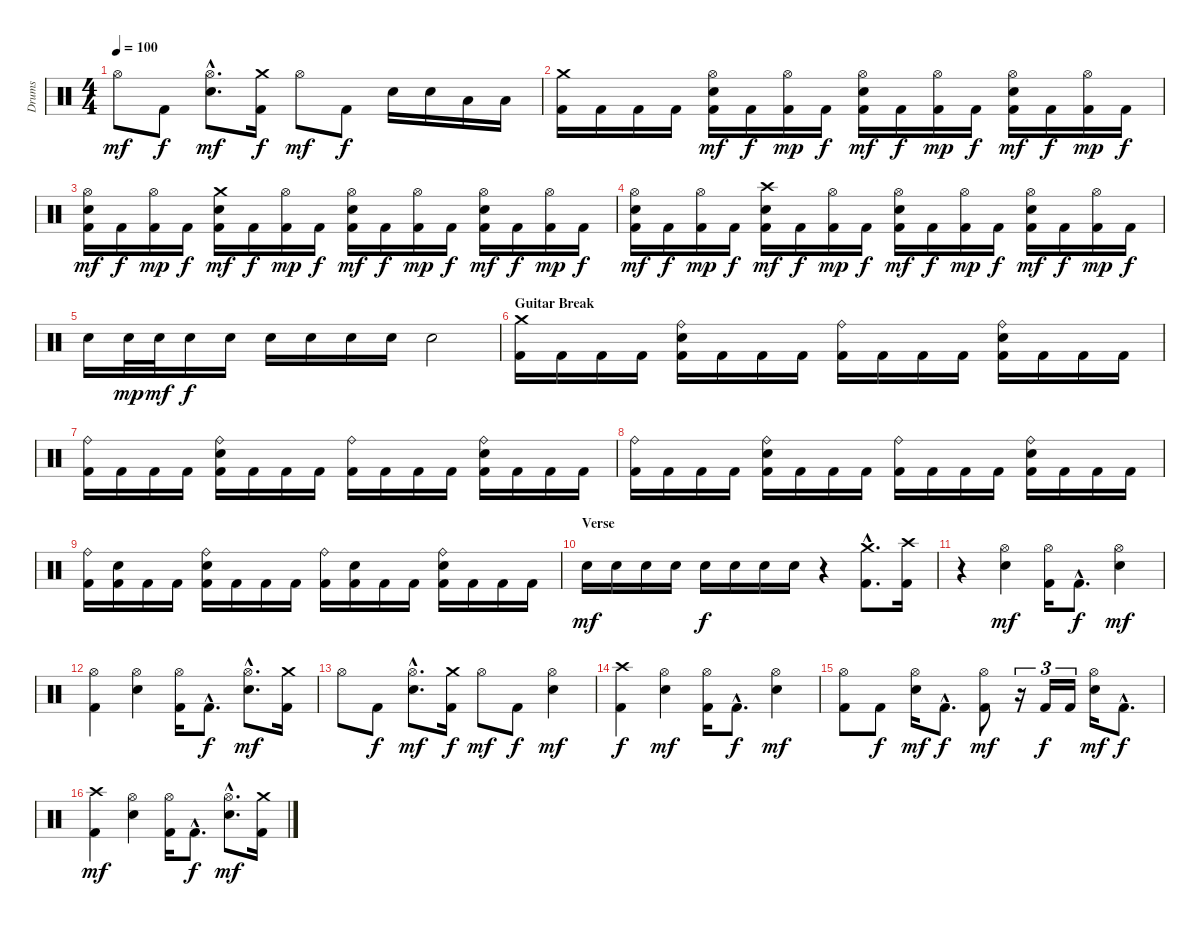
\track ("Drums" "Drums") {instrument percussion}
\staff {score}
\articulation defaults
\ts (4 4)
\tempo 100
\clef neutral
\ks c "Hi-Hat (open)".8{dy mf} "Kick (hit) 2".8{dy f}
("Hi-Hat (open)"{hac} "Electric Snare (hit)"{hac}).8{d dy mf} ("Crash medium (hit)" "Kick (hit) 2").16{dy f} "Hi-Hat (open)".8{dy mf} "Kick (hit) 2".8{dy f} "Electric Snare (hit)".16 "Electric Snare (hit)".16 "Low Tom (hit)".16 "Low Tom (hit)".16 |
("Crash medium (hit)" "Kick (hit) 2").16 "Kick (hit) 2".16 "Kick (hit) 2".16 "Kick (hit) 2".16 ("Hi-Hat (open)" "Electric Snare (hit)" "Kick (hit) 2").16{dy mf} "Kick (hit) 2".16{dy f} ("Hi-Hat (open)" "Kick (hit) 2").16{dy mp} "Kick (hit) 2".16{dy f} ("Hi-Hat (open)" "Electric Snare (hit)" "Kick (hit) 2").16{dy mf} "Kick (hit) 2".16{dy f} ("Hi-Hat (open)" "Kick (hit) 2").16{dy mp} "Kick (hit) 2".16{dy f} ("Hi-Hat (open)" "Electric Snare (hit)" "Kick (hit) 2").16{dy mf} "Kick (hit) 2".16{dy f} ("Hi-Hat (open)" "Kick (hit) 2").16{dy mp} "Kick (hit) 2".16{dy f} |
("Hi-Hat (open)" "Electric Snare (hit)" "Kick (hit) 2").16{dy mf} "Kick (hit) 2".16{dy f} ("Hi-Hat (open)" "Kick (hit) 2").16{dy mp} "Kick (hit) 2".16{dy f} ("Crash medium (hit)" "Electric Snare (hit)" "Kick (hit) 2").16{dy mf} "Kick (hit) 2".16{dy f} ("Hi-Hat (open)" "Kick (hit) 2").16{dy mp} "Kick (hit) 2".16{dy f} ("Hi-Hat (open)" "Electric Snare (hit)" "Kick (hit) 2").16{dy mf} "Kick (hit) 2".16{dy f} ("Hi-Hat (open)" "Kick (hit) 2").16{dy mp} "Kick (hit) 2".16{dy f} ("Hi-Hat (open)" "Electric Snare (hit)" "Kick (hit) 2").16{dy mf} "Kick (hit) 2".16{dy f} ("Hi-Hat (open)" "Kick (hit) 2").16{dy mp} "Kick (hit) 2".16{dy f} |
("Hi-Hat (open)" "Electric Snare (hit)" "Kick (hit) 2").16{dy mf} "Kick (hit) 2".16{dy f} ("Hi-Hat (open)" "Kick (hit) 2").16{dy mp} "Kick (hit) 2".16{dy f} ("Crash high (hit)" "Electric Snare (hit)" "Kick (hit) 2").16{dy mf} "Kick (hit) 2".16{dy f} ("Hi-Hat (open)" "Kick (hit) 2").16{dy mp} "Kick (hit) 2".16{dy f} ("Hi-Hat (open)" "Electric Snare (hit)" "Kick (hit) 2").16{dy mf} "Kick (hit) 2".16{dy f} ("Hi-Hat (open)" "Kick (hit) 2").16{dy mp} "Kick (hit) 2".16{dy f} ("Hi-Hat (open)" "Electric Snare (hit)" "Kick (hit) 2").16{dy mf} "Kick (hit) 2".16{dy f} ("Hi-Hat (open)" "Kick (hit) 2").16{dy mp} "Kick (hit) 2".16{dy f} |
"Electric Snare (hit)".16 "Electric Snare (hit)".32{dy mp} "Electric Snare (hit)".32{dy mf} "Electric Snare (hit)".16{dy f} "Electric Snare (hit)".16 "Electric Snare (hit)".16 "Electric Snare (hit)".16 "Electric Snare (hit)".16 "Electric Snare (hit)".16 "Electric Snare (hit)".2 |
\section ("" "Guitar Break")
("Crash medium (hit)" "Kick (hit) 2").16 "Kick (hit) 2".16 "Kick (hit) 2".16 "Kick (hit) 2".16 ("Ride (bell)" "Electric Snare (hit)" "Kick (hit) 2").16 "Kick (hit) 2".16 "Kick (hit) 2".16 "Kick (hit) 2".16 ("Ride (bell)" "Kick (hit) 2").16 "Kick (hit) 2".16 "Kick (hit) 2".16 "Kick (hit) 2".16 ("Ride (bell)" "Electric Snare (hit)" "Kick (hit) 2").16 "Kick (hit) 2".16 "Kick (hit) 2".16 "Kick (hit) 2".16 |
("Ride (bell)" "Kick (hit) 2").16 "Kick (hit) 2".16 "Kick (hit) 2".16 "Kick (hit) 2".16 ("Ride (bell)" "Electric Snare (hit)" "Kick (hit) 2").16 "Kick (hit) 2".16 "Kick (hit) 2".16 "Kick (hit) 2".16 ("Ride (bell)" "Kick (hit) 2").16 "Kick (hit) 2".16 "Kick (hit) 2".16 "Kick (hit) 2".16 ("Ride (bell)" "Electric Snare (hit)" "Kick (hit) 2").16 "Kick (hit) 2".16 "Kick (hit) 2".16 "Kick (hit) 2".16 |
("Ride (bell)" "Kick (hit) 2").16 "Kick (hit) 2".16 "Kick (hit) 2".16 "Kick (hit) 2".16 ("Ride (bell)" "Electric Snare (hit)" "Kick (hit) 2").16 "Kick (hit) 2".16 "Kick (hit) 2".16 "Kick (hit) 2".16 ("Ride (bell)" "Kick (hit) 2").16 "Kick (hit) 2".16 "Kick (hit) 2".16 "Kick (hit) 2".16 ("Ride (bell)" "Electric Snare (hit)" "Kick (hit) 2").16 "Kick (hit) 2".16 "Kick (hit) 2".16 "Kick (hit) 2".16 |
("Ride (bell)" "Kick (hit) 2").16 ("Electric Snare (hit)" "Kick (hit) 2").16 "Kick (hit) 2".16 "Kick (hit) 2".16 ("Ride (bell)" "Electric Snare (hit)" "Kick (hit) 2").16 "Kick (hit) 2".16 "Kick (hit) 2".16 "Kick (hit) 2".16 ("Ride (bell)" "Kick (hit) 2").16 ("Electric Snare (hit)" "Kick (hit) 2").16 "Kick (hit) 2".16 "Kick (hit) 2".16 ("Ride (bell)" "Electric Snare (hit)" "Kick (hit) 2").16 "Kick (hit) 2".16 "Kick (hit) 2".16 "Kick (hit) 2".16 |
\section ("" "Verse")
"Electric Snare (hit)".16{dy mf} "Electric Snare (hit)".16 "Electric Snare (hit)".16 "Electric Snare (hit)".16 "Electric Snare (hit)".16{dy f} "Electric Snare (hit)".16 "Electric Snare (hit)".16 "Electric Snare (hit)".16 r.4 ("Crash medium (hit)"{hac} "Kick (hit) 2"{hac}).8{d} ("Crash high (hit)" "Kick (hit) 2").16 |
r.4 ("Hi-Hat (open)" "Electric Snare (hit)").4{dy mf} ("Hi-Hat (open)" "Kick (hit) 2").16 "Kick (hit) 2"{hac}.8{d dy f} ("Hi-Hat (open)" "Electric Snare (hit)").4{dy mf} |
("Hi-Hat (open)" "Kick (hit) 2").4 ("Hi-Hat (open)" "Electric Snare (hit)").4 ("Hi-Hat (open)" "Kick (hit) 2").16 "Kick (hit) 2"{hac}.8{d dy f} ("Hi-Hat (open)"{hac} "Electric Snare (hit)"{hac}).8{d dy mf} ("Crash medium (hit)" "Kick (hit) 2").16 |
"Hi-Hat (open)".8 "Kick (hit) 2".8{dy f} ("Hi-Hat (open)"{hac} "Electric Snare (hit)"{hac}).8{d dy mf} ("Crash medium (hit)" "Kick (hit) 2").16{dy f} "Hi-Hat (open)".8{dy mf} "Kick (hit) 2".8{dy f} ("Hi-Hat (open)" "Electric Snare (hit)").4{dy mf} |
("Crash high (hit)" "Kick (hit) 2").4{dy f} ("Hi-Hat (open)" "Electric Snare (hit)").4{dy mf} ("Hi-Hat (open)" "Kick (hit) 2").16 "Kick (hit) 2"{hac}.8{d dy f} ("Hi-Hat (open)" "Electric Snare (hit)").4{dy mf} |
("Hi-Hat (open)" "Kick (hit) 2").8 "Kick (hit) 2".8{dy f} ("Hi-Hat (open)" "Electric Snare (hit)").16{dy mf} "Kick (hit) 2"{hac}.8{d dy f} ("Hi-Hat (open)" "Kick (hit) 2").8{dy mf} r.16{tu (3 2)} "Kick (hit) 2".16{tu (3 2) dy f} "Kick (hit) 2".16{tu (3 2)} ("Hi-Hat (open)" "Electric Snare (hit)").16{dy mf} "Kick (hit) 2"{hac}.8{d dy f} |
("Crash high (hit)" "Kick (hit) 2").4{dy mf} ("Hi-Hat (open)" "Electric Snare (hit)").4 ("Hi-Hat (open)" "Kick (hit) 2").16 "Kick (hit) 2"{hac}.8{d dy f} ("Hi-Hat (open)"{hac} "Electric Snare (hit)"{hac}).8{d dy mf} ("Crash medium (hit)" "Kick (hit) 2").16
